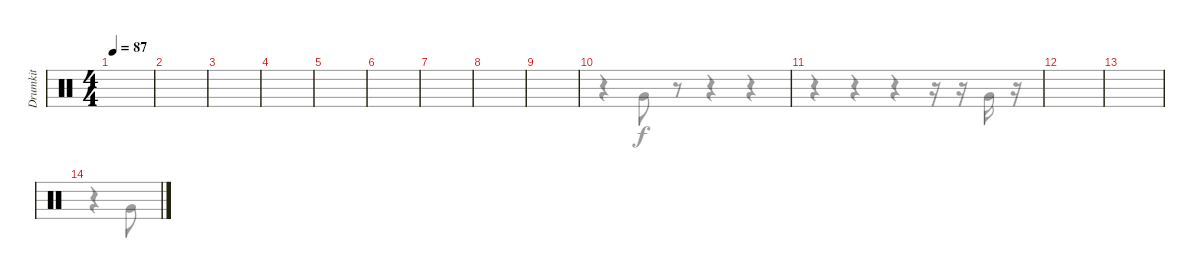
\track ("Drumkit" "Drumkit") {instrument percussion}
\staff {score}
\articulation defaults
\voice
\ts (4 4)
\tempo 87
\clef neutral
\ks c
|
|
|
|
|
|
|
|
|
|
|
|
|
|
|
\voice
\clef neutral
\ks c
|
|
|
|
|
|
|
|
|
r.4 "Very Low Tom (hit)".8 r.8 r.4 r.4 |
r.4 r.4 r.4 r.16 r.16 "Very Low Tom (hit)".16 r.16 |
|
|
r.4 "Very Low Tom (hit)".8 |
|
